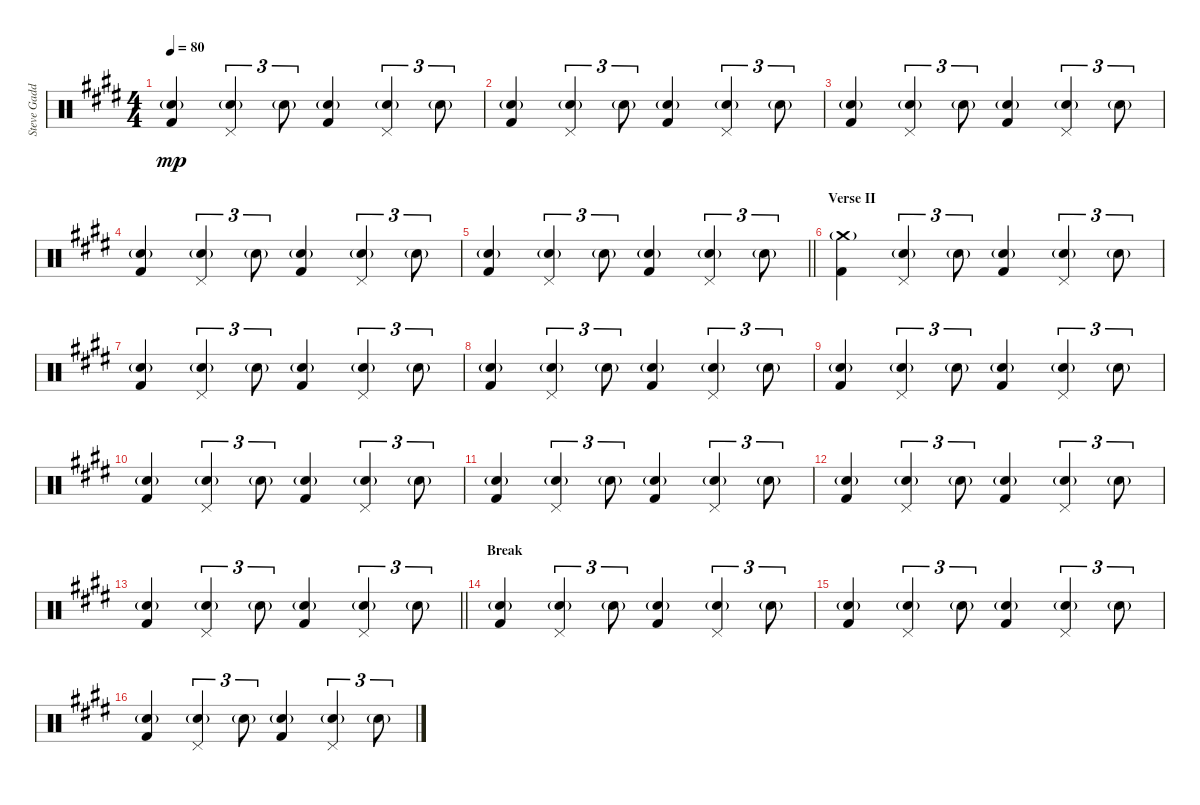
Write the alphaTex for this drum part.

\track ("Steve Gadd Drums" "Steve Gadd") {instrument percussion}
\staff {score}
\articulation defaults
\ts (4 4)
\tempo 80
\clef neutral
\ks e
("Snare (hit) 2"{g} "Kick (hit) 2").4{dy mp} ("Snare (hit) 2"{g} "Pedal Hi-Hat (hit)").4{tu (3 2)} "Snare (hit) 2"{g}.8{tu (3 2)} ("Snare (hit) 2"{g} "Kick (hit) 2").4 ("Snare (hit) 2"{g} "Pedal Hi-Hat (hit)").4{tu (3 2)} "Snare (hit) 2"{g}.8{tu (3 2)} |
("Snare (hit) 2"{g} "Kick (hit) 2").4 ("Snare (hit) 2"{g} "Pedal Hi-Hat (hit)").4{tu (3 2)} "Snare (hit) 2"{g}.8{tu (3 2)} ("Snare (hit) 2"{g} "Kick (hit) 2").4 ("Snare (hit) 2"{g} "Pedal Hi-Hat (hit)").4{tu (3 2)} "Snare (hit) 2"{g}.8{tu (3 2)} |
("Snare (hit) 2"{g} "Kick (hit) 2").4 ("Snare (hit) 2"{g} "Pedal Hi-Hat (hit)").4{tu (3 2)} "Snare (hit) 2"{g}.8{tu (3 2)} ("Snare (hit) 2"{g} "Kick (hit) 2").4 ("Snare (hit) 2"{g} "Pedal Hi-Hat (hit)").4{tu (3 2)} "Snare (hit) 2"{g}.8{tu (3 2)} |
("Snare (hit) 2"{g} "Kick (hit) 2").4 ("Snare (hit) 2"{g} "Pedal Hi-Hat (hit)").4{tu (3 2)} "Snare (hit) 2"{g}.8{tu (3 2)} ("Snare (hit) 2"{g} "Kick (hit) 2").4 ("Snare (hit) 2"{g} "Pedal Hi-Hat (hit)").4{tu (3 2)} "Snare (hit) 2"{g}.8{tu (3 2)} |
\barLineRight lightlight
("Snare (hit) 2"{g} "Kick (hit) 2").4 ("Snare (hit) 2"{g} "Pedal Hi-Hat (hit)").4{tu (3 2)} "Snare (hit) 2"{g}.8{tu (3 2)} ("Snare (hit) 2"{g} "Kick (hit) 2").4 ("Snare (hit) 2"{g} "Pedal Hi-Hat (hit)").4{tu (3 2)} "Snare (hit) 2"{g}.8{tu (3 2)} |
\section ("" "Verse II")
("Crash medium (hit)"{g} "Kick (hit) 2").4 ("Snare (hit) 2"{g} "Pedal Hi-Hat (hit)").4{tu (3 2)} "Snare (hit) 2"{g}.8{tu (3 2)} ("Snare (hit) 2"{g} "Kick (hit) 2").4 ("Snare (hit) 2"{g} "Pedal Hi-Hat (hit)").4{tu (3 2)} "Snare (hit) 2"{g}.8{tu (3 2)} |
("Snare (hit) 2"{g} "Kick (hit) 2").4 ("Snare (hit) 2"{g} "Pedal Hi-Hat (hit)").4{tu (3 2)} "Snare (hit) 2"{g}.8{tu (3 2)} ("Snare (hit) 2"{g} "Kick (hit) 2").4 ("Snare (hit) 2"{g} "Pedal Hi-Hat (hit)").4{tu (3 2)} "Snare (hit) 2"{g}.8{tu (3 2)} |
("Snare (hit) 2"{g} "Kick (hit) 2").4 ("Snare (hit) 2"{g} "Pedal Hi-Hat (hit)").4{tu (3 2)} "Snare (hit) 2"{g}.8{tu (3 2)} ("Snare (hit) 2"{g} "Kick (hit) 2").4 ("Snare (hit) 2"{g} "Pedal Hi-Hat (hit)").4{tu (3 2)} "Snare (hit) 2"{g}.8{tu (3 2)} |
("Snare (hit) 2"{g} "Kick (hit) 2").4 ("Snare (hit) 2"{g} "Pedal Hi-Hat (hit)").4{tu (3 2)} "Snare (hit) 2"{g}.8{tu (3 2)} ("Snare (hit) 2"{g} "Kick (hit) 2").4 ("Snare (hit) 2"{g} "Pedal Hi-Hat (hit)").4{tu (3 2)} "Snare (hit) 2"{g}.8{tu (3 2)} |
("Snare (hit) 2"{g} "Kick (hit) 2").4 ("Snare (hit) 2"{g} "Pedal Hi-Hat (hit)").4{tu (3 2)} "Snare (hit) 2"{g}.8{tu (3 2)} ("Snare (hit) 2"{g} "Kick (hit) 2").4 ("Snare (hit) 2"{g} "Pedal Hi-Hat (hit)").4{tu (3 2)} "Snare (hit) 2"{g}.8{tu (3 2)} |
("Snare (hit) 2"{g} "Kick (hit) 2").4 ("Snare (hit) 2"{g} "Pedal Hi-Hat (hit)").4{tu (3 2)} "Snare (hit) 2"{g}.8{tu (3 2)} ("Snare (hit) 2"{g} "Kick (hit) 2").4 ("Snare (hit) 2"{g} "Pedal Hi-Hat (hit)").4{tu (3 2)} "Snare (hit) 2"{g}.8{tu (3 2)} |
("Snare (hit) 2"{g} "Kick (hit) 2").4 ("Snare (hit) 2"{g} "Pedal Hi-Hat (hit)").4{tu (3 2)} "Snare (hit) 2"{g}.8{tu (3 2)} ("Snare (hit) 2"{g} "Kick (hit) 2").4 ("Snare (hit) 2"{g} "Pedal Hi-Hat (hit)").4{tu (3 2)} "Snare (hit) 2"{g}.8{tu (3 2)} |
\barLineRight lightlight
("Snare (hit) 2"{g} "Kick (hit) 2").4 ("Snare (hit) 2"{g} "Pedal Hi-Hat (hit)").4{tu (3 2)} "Snare (hit) 2"{g}.8{tu (3 2)} ("Snare (hit) 2"{g} "Kick (hit) 2").4 ("Snare (hit) 2"{g} "Pedal Hi-Hat (hit)").4{tu (3 2)} "Snare (hit) 2"{g}.8{tu (3 2)} |
\section ("" "Break")
("Snare (hit) 2"{g} "Kick (hit) 2").4 ("Snare (hit) 2"{g} "Pedal Hi-Hat (hit)").4{tu (3 2)} "Snare (hit) 2"{g}.8{tu (3 2)} ("Snare (hit) 2"{g} "Kick (hit) 2").4 ("Snare (hit) 2"{g} "Pedal Hi-Hat (hit)").4{tu (3 2)} "Snare (hit) 2"{g}.8{tu (3 2)} |
("Snare (hit) 2"{g} "Kick (hit) 2").4 ("Snare (hit) 2"{g} "Pedal Hi-Hat (hit)").4{tu (3 2)} "Snare (hit) 2"{g}.8{tu (3 2)} ("Snare (hit) 2"{g} "Kick (hit) 2").4 ("Snare (hit) 2"{g} "Pedal Hi-Hat (hit)").4{tu (3 2)} "Snare (hit) 2"{g}.8{tu (3 2)} |
("Snare (hit) 2"{g} "Kick (hit) 2").4 ("Snare (hit) 2"{g} "Pedal Hi-Hat (hit)").4{tu (3 2)} "Snare (hit) 2"{g}.8{tu (3 2)} ("Snare (hit) 2"{g} "Kick (hit) 2").4 ("Snare (hit) 2"{g} "Pedal Hi-Hat (hit)").4{tu (3 2)} "Snare (hit) 2"{g}.8{tu (3 2)}
